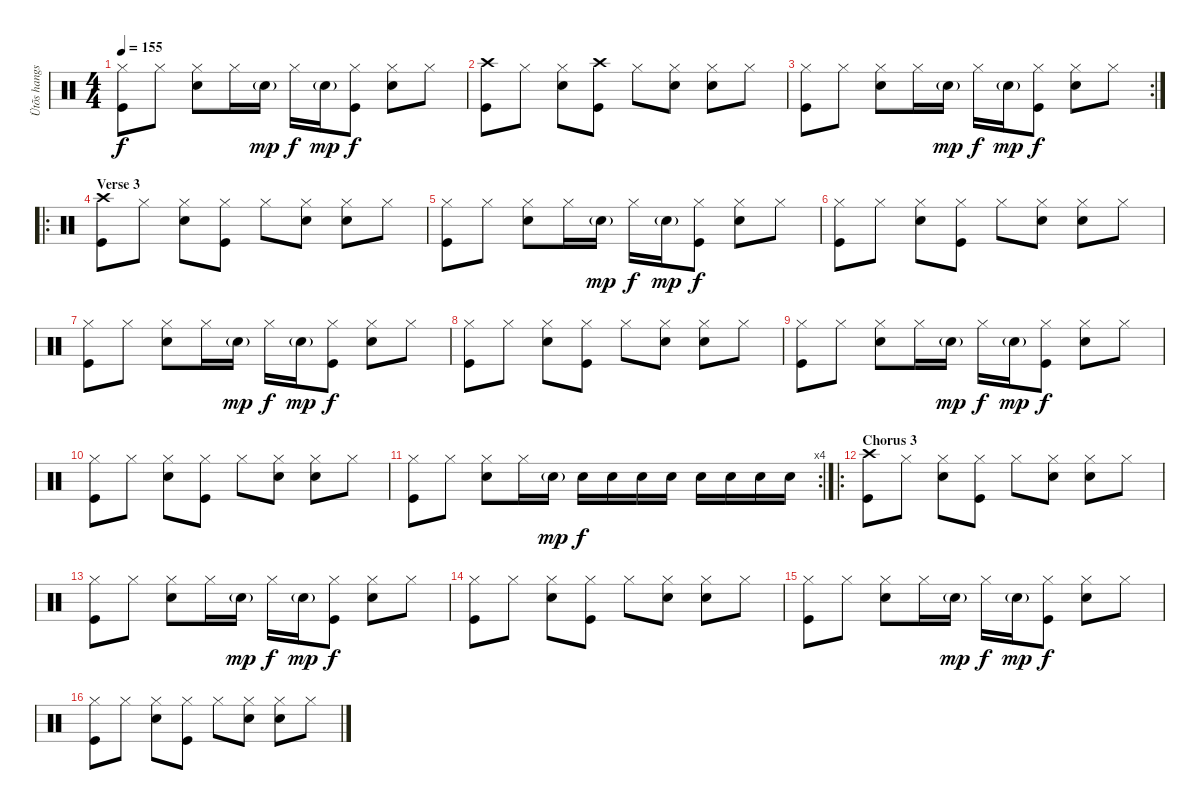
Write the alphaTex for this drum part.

\track ("Ütõs hangszer" "Ütõs hangs") {instrument percussion}
\staff {score}
\articulation defaults
\ts (4 4)
\tempo 155
\clef neutral
\ks c
("Hi-Hat (closed)" "Kick (hit)").8{dy f} "Hi-Hat (closed)".8 ("Hi-Hat (closed)" "Electric Snare (hit)").8 "Hi-Hat (closed)".16 "Electric Snare (hit)"{g}.16{dy mp} "Hi-Hat (closed)".16{dy f} "Electric Snare (hit)"{g}.16{dy mp} ("Hi-Hat (closed)" "Kick (hit)").8{dy f} ("Hi-Hat (closed)" "Electric Snare (hit)").8 "Hi-Hat (closed)".8 |
("Crash high (hit)" "Kick (hit)").8 "Hi-Hat (closed)".8 ("Hi-Hat (closed)" "Electric Snare (hit)").8 ("Crash high (hit)" "Kick (hit)").8 "Hi-Hat (closed)".8 ("Hi-Hat (closed)" "Electric Snare (hit)").8 ("Hi-Hat (closed)" "Electric Snare (hit)").8 "Hi-Hat (closed)".8 |
\rc 2
("Hi-Hat (closed)" "Kick (hit)").8 "Hi-Hat (closed)".8 ("Hi-Hat (closed)" "Electric Snare (hit)").8 "Hi-Hat (closed)".16 "Electric Snare (hit)"{g}.16{dy mp} "Hi-Hat (closed)".16{dy f} "Electric Snare (hit)"{g}.16{dy mp} ("Hi-Hat (closed)" "Kick (hit)").8{dy f} ("Hi-Hat (closed)" "Electric Snare (hit)").8 "Hi-Hat (closed)".8 |
\ro
\section ("" "Verse 3")
("Crash high (hit)" "Kick (hit)").8 "Hi-Hat (closed)".8 ("Hi-Hat (closed)" "Electric Snare (hit)").8 ("Hi-Hat (closed)" "Kick (hit)").8 "Hi-Hat (closed)".8 ("Hi-Hat (closed)" "Electric Snare (hit)").8 ("Hi-Hat (closed)" "Electric Snare (hit)").8 "Hi-Hat (closed)".8 |
("Hi-Hat (closed)" "Kick (hit)").8 "Hi-Hat (closed)".8 ("Hi-Hat (closed)" "Electric Snare (hit)").8 "Hi-Hat (closed)".16 "Electric Snare (hit)"{g}.16{dy mp} "Hi-Hat (closed)".16{dy f} "Electric Snare (hit)"{g}.16{dy mp} ("Hi-Hat (closed)" "Kick (hit)").8{dy f} ("Hi-Hat (closed)" "Electric Snare (hit)").8 "Hi-Hat (closed)".8 |
("Hi-Hat (closed)" "Kick (hit)").8 "Hi-Hat (closed)".8 ("Hi-Hat (closed)" "Electric Snare (hit)").8 ("Hi-Hat (closed)" "Kick (hit)").8 "Hi-Hat (closed)".8 ("Hi-Hat (closed)" "Electric Snare (hit)").8 ("Hi-Hat (closed)" "Electric Snare (hit)").8 "Hi-Hat (closed)".8 |
("Hi-Hat (closed)" "Kick (hit)").8 "Hi-Hat (closed)".8 ("Hi-Hat (closed)" "Electric Snare (hit)").8 "Hi-Hat (closed)".16 "Electric Snare (hit)"{g}.16{dy mp} "Hi-Hat (closed)".16{dy f} "Electric Snare (hit)"{g}.16{dy mp} ("Hi-Hat (closed)" "Kick (hit)").8{dy f} ("Hi-Hat (closed)" "Electric Snare (hit)").8 "Hi-Hat (closed)".8 |
("Hi-Hat (closed)" "Kick (hit)").8 "Hi-Hat (closed)".8 ("Hi-Hat (closed)" "Electric Snare (hit)").8 ("Hi-Hat (closed)" "Kick (hit)").8 "Hi-Hat (closed)".8 ("Hi-Hat (closed)" "Electric Snare (hit)").8 ("Hi-Hat (closed)" "Electric Snare (hit)").8 "Hi-Hat (closed)".8 |
("Hi-Hat (closed)" "Kick (hit)").8 "Hi-Hat (closed)".8 ("Hi-Hat (closed)" "Electric Snare (hit)").8 "Hi-Hat (closed)".16 "Electric Snare (hit)"{g}.16{dy mp} "Hi-Hat (closed)".16{dy f} "Electric Snare (hit)"{g}.16{dy mp} ("Hi-Hat (closed)" "Kick (hit)").8{dy f} ("Hi-Hat (closed)" "Electric Snare (hit)").8 "Hi-Hat (closed)".8 |
("Hi-Hat (closed)" "Kick (hit)").8 "Hi-Hat (closed)".8 ("Hi-Hat (closed)" "Electric Snare (hit)").8 ("Hi-Hat (closed)" "Kick (hit)").8 "Hi-Hat (closed)".8 ("Hi-Hat (closed)" "Electric Snare (hit)").8 ("Hi-Hat (closed)" "Electric Snare (hit)").8 "Hi-Hat (closed)".8 |
\rc 4
("Hi-Hat (closed)" "Kick (hit)").8 "Hi-Hat (closed)".8 ("Hi-Hat (closed)" "Electric Snare (hit)").8 "Hi-Hat (closed)".16 "Electric Snare (hit)"{g}.16{dy mp} "Electric Snare (hit)".16{dy f} "Electric Snare (hit)".16 "Electric Snare (hit)".16 "Electric Snare (hit)".16 "Electric Snare (hit)".16 "Electric Snare (hit)".16 "Electric Snare (hit)".16 "Electric Snare (hit)".16 |
\ro
\section ("" "Chorus 3")
("Crash high (hit)" "Kick (hit)").8 "Hi-Hat (closed)".8 ("Hi-Hat (closed)" "Electric Snare (hit)").8 ("Hi-Hat (closed)" "Kick (hit)").8 "Hi-Hat (closed)".8 ("Hi-Hat (closed)" "Electric Snare (hit)").8 ("Hi-Hat (closed)" "Electric Snare (hit)").8 "Hi-Hat (closed)".8 |
("Hi-Hat (closed)" "Kick (hit)").8 "Hi-Hat (closed)".8 ("Hi-Hat (closed)" "Electric Snare (hit)").8 "Hi-Hat (closed)".16 "Electric Snare (hit)"{g}.16{dy mp} "Hi-Hat (closed)".16{dy f} "Electric Snare (hit)"{g}.16{dy mp} ("Hi-Hat (closed)" "Kick (hit)").8{dy f} ("Hi-Hat (closed)" "Electric Snare (hit)").8 "Hi-Hat (closed)".8 |
("Hi-Hat (closed)" "Kick (hit)").8 "Hi-Hat (closed)".8 ("Hi-Hat (closed)" "Electric Snare (hit)").8 ("Hi-Hat (closed)" "Kick (hit)").8 "Hi-Hat (closed)".8 ("Hi-Hat (closed)" "Electric Snare (hit)").8 ("Hi-Hat (closed)" "Electric Snare (hit)").8 "Hi-Hat (closed)".8 |
("Hi-Hat (closed)" "Kick (hit)").8 "Hi-Hat (closed)".8 ("Hi-Hat (closed)" "Electric Snare (hit)").8 "Hi-Hat (closed)".16 "Electric Snare (hit)"{g}.16{dy mp} "Hi-Hat (closed)".16{dy f} "Electric Snare (hit)"{g}.16{dy mp} ("Hi-Hat (closed)" "Kick (hit)").8{dy f} ("Hi-Hat (closed)" "Electric Snare (hit)").8 "Hi-Hat (closed)".8 |
("Hi-Hat (closed)" "Kick (hit)").8 "Hi-Hat (closed)".8 ("Hi-Hat (closed)" "Electric Snare (hit)").8 ("Hi-Hat (closed)" "Kick (hit)").8 "Hi-Hat (closed)".8 ("Hi-Hat (closed)" "Electric Snare (hit)").8 ("Hi-Hat (closed)" "Electric Snare (hit)").8 "Hi-Hat (closed)".8
